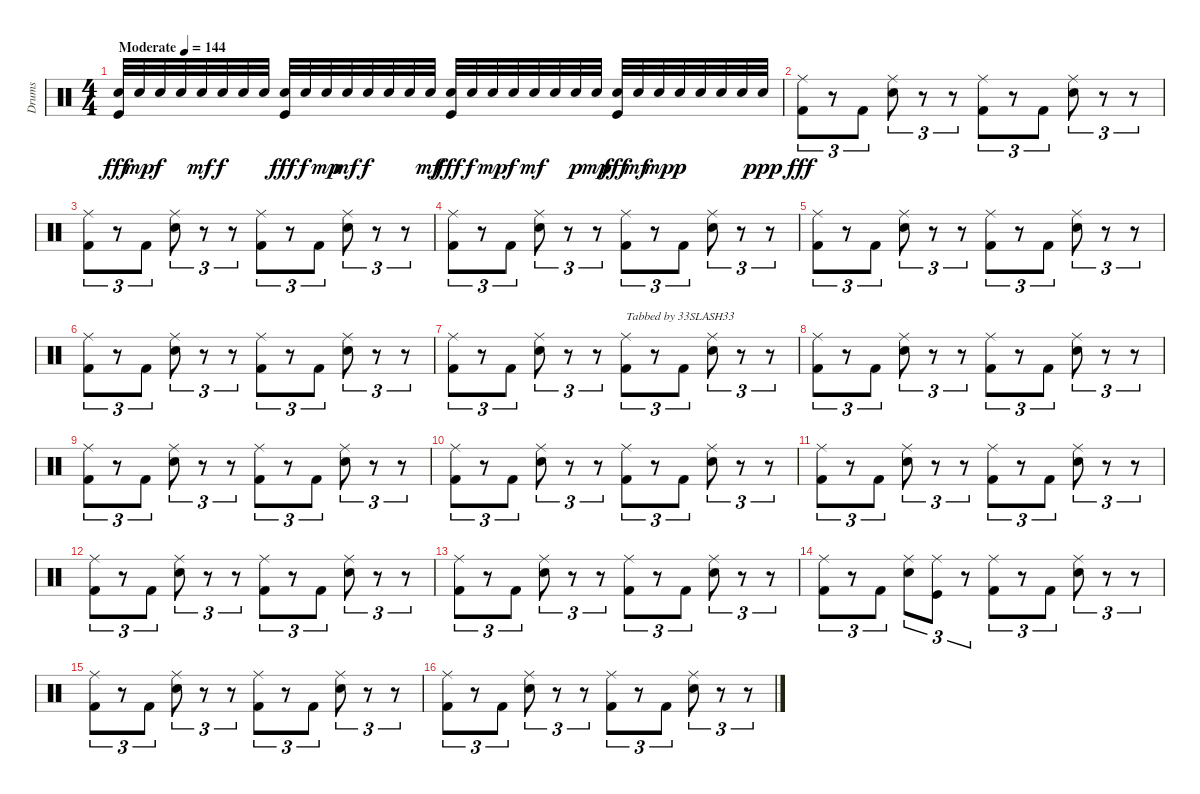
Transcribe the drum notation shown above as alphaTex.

\track ("Drums" "Drums") {instrument percussion}
\staff {score}
\articulation defaults
\ts (4 4)
\tempo (144 "Moderate")
\clef neutral
\ks c
("Snare (hit) 2" "Kick (hit)").32{dy fff} "Snare (hit) 2".32{dy mp} "Snare (hit) 2".32{dy f} "Snare (hit) 2".32 "Snare (hit) 2".32{dy mf} "Snare (hit) 2".32{dy f} "Snare (hit) 2".32 "Snare (hit) 2".32 ("Snare (hit) 2" "Kick (hit)").32{dy fff} "Snare (hit) 2".32{dy f} "Snare (hit) 2".32{dy mp} "Snare (hit) 2".32{dy mf} "Snare (hit) 2".32{dy f} "Snare (hit) 2".32 "Snare (hit) 2".32 "Snare (hit) 2".32{dy mf} ("Snare (hit) 2" "Kick (hit)").32{dy fff} "Snare (hit) 2".32{dy f} "Snare (hit) 2".32{dy mp} "Snare (hit) 2".32{dy f} "Snare (hit) 2".32{dy mf} "Snare (hit) 2".32 "Snare (hit) 2".32{dy p} "Snare (hit) 2".32{dy mp} ("Snare (hit) 2" "Kick (hit)").32{dy fff} "Snare (hit) 2".32{dy mf} "Snare (hit) 2".32{dy mp} "Snare (hit) 2".32{dy p} "Snare (hit) 2".32 "Snare (hit) 2".32 "Snare (hit) 2".32 "Snare (hit) 2".32{dy ppp} |
("Ride (middle)" "Kick (hit) 2").8{tu (3 2) dy fff} r.8{tu (3 2)} "Kick (hit) 2".8{tu (3 2)} ("Ride (middle)" "Snare (hit) 2").8{tu (3 2)} r.8{tu (3 2)} r.8{tu (3 2)} ("Ride (middle)" "Kick (hit) 2").8{tu (3 2)} r.8{tu (3 2)} "Kick (hit) 2".8{tu (3 2)} ("Ride (middle)" "Snare (hit) 2").8{tu (3 2)} r.8{tu (3 2)} r.8{tu (3 2)} |
("Ride (middle)" "Kick (hit) 2").8{tu (3 2)} r.8{tu (3 2)} "Kick (hit) 2".8{tu (3 2)} ("Ride (middle)" "Snare (hit) 2").8{tu (3 2)} r.8{tu (3 2)} r.8{tu (3 2)} ("Ride (middle)" "Kick (hit) 2").8{tu (3 2)} r.8{tu (3 2)} "Kick (hit) 2".8{tu (3 2)} ("Ride (middle)" "Snare (hit) 2").8{tu (3 2)} r.8{tu (3 2)} r.8{tu (3 2)} |
("Ride (middle)" "Kick (hit) 2").8{tu (3 2)} r.8{tu (3 2)} "Kick (hit) 2".8{tu (3 2)} ("Ride (middle)" "Snare (hit) 2").8{tu (3 2)} r.8{tu (3 2)} r.8{tu (3 2)} ("Ride (middle)" "Kick (hit) 2").8{tu (3 2)} r.8{tu (3 2)} "Kick (hit) 2".8{tu (3 2)} ("Ride (middle)" "Snare (hit) 2").8{tu (3 2)} r.8{tu (3 2)} r.8{tu (3 2)} |
("Ride (middle)" "Kick (hit) 2").8{tu (3 2)} r.8{tu (3 2)} "Kick (hit) 2".8{tu (3 2)} ("Ride (middle)" "Snare (hit) 2").8{tu (3 2)} r.8{tu (3 2)} r.8{tu (3 2)} ("Ride (middle)" "Kick (hit) 2").8{tu (3 2)} r.8{tu (3 2)} "Kick (hit) 2".8{tu (3 2)} ("Ride (middle)" "Snare (hit) 2").8{tu (3 2)} r.8{tu (3 2)} r.8{tu (3 2)} |
("Ride (middle)" "Kick (hit) 2").8{tu (3 2)} r.8{tu (3 2)} "Kick (hit) 2".8{tu (3 2)} ("Ride (middle)" "Snare (hit) 2").8{tu (3 2)} r.8{tu (3 2)} r.8{tu (3 2)} ("Ride (middle)" "Kick (hit) 2").8{tu (3 2)} r.8{tu (3 2)} "Kick (hit) 2".8{tu (3 2)} ("Ride (middle)" "Snare (hit) 2").8{tu (3 2)} r.8{tu (3 2)} r.8{tu (3 2)} |
("Ride (middle)" "Kick (hit) 2").8{tu (3 2)} r.8{tu (3 2)} "Kick (hit) 2".8{tu (3 2)} ("Ride (middle)" "Snare (hit) 2").8{tu (3 2)} r.8{tu (3 2)} r.8{tu (3 2)} ("Ride (middle)" "Kick (hit) 2").8{tu (3 2) txt "Tabbed by 33SLASH33"} r.8{tu (3 2)} "Kick (hit) 2".8{tu (3 2)} ("Ride (middle)" "Snare (hit) 2").8{tu (3 2)} r.8{tu (3 2)} r.8{tu (3 2)} |
("Ride (middle)" "Kick (hit) 2").8{tu (3 2)} r.8{tu (3 2)} "Kick (hit) 2".8{tu (3 2)} ("Ride (middle)" "Snare (hit) 2").8{tu (3 2)} r.8{tu (3 2)} r.8{tu (3 2)} ("Ride (middle)" "Kick (hit) 2").8{tu (3 2)} r.8{tu (3 2)} "Kick (hit) 2".8{tu (3 2)} ("Ride (middle)" "Snare (hit) 2").8{tu (3 2)} r.8{tu (3 2)} r.8{tu (3 2)} |
("Ride (middle)" "Kick (hit) 2").8{tu (3 2)} r.8{tu (3 2)} "Kick (hit) 2".8{tu (3 2)} ("Ride (middle)" "Snare (hit) 2").8{tu (3 2)} r.8{tu (3 2)} r.8{tu (3 2)} ("Ride (middle)" "Kick (hit) 2").8{tu (3 2)} r.8{tu (3 2)} "Kick (hit) 2".8{tu (3 2)} ("Ride (middle)" "Snare (hit) 2").8{tu (3 2)} r.8{tu (3 2)} r.8{tu (3 2)} |
("Ride (middle)" "Kick (hit) 2").8{tu (3 2)} r.8{tu (3 2)} "Kick (hit) 2".8{tu (3 2)} ("Ride (middle)" "Snare (hit) 2").8{tu (3 2)} r.8{tu (3 2)} r.8{tu (3 2)} ("Ride (middle)" "Kick (hit) 2").8{tu (3 2)} r.8{tu (3 2)} "Kick (hit) 2".8{tu (3 2)} ("Ride (middle)" "Snare (hit) 2").8{tu (3 2)} r.8{tu (3 2)} r.8{tu (3 2)} |
("Ride (middle)" "Kick (hit) 2").8{tu (3 2)} r.8{tu (3 2)} "Kick (hit) 2".8{tu (3 2)} ("Ride (middle)" "Snare (hit) 2").8{tu (3 2)} r.8{tu (3 2)} r.8{tu (3 2)} ("Ride (middle)" "Kick (hit) 2").8{tu (3 2)} r.8{tu (3 2)} "Kick (hit) 2".8{tu (3 2)} ("Ride (middle)" "Snare (hit) 2").8{tu (3 2)} r.8{tu (3 2)} r.8{tu (3 2)} |
("Ride (middle)" "Kick (hit) 2").8{tu (3 2)} r.8{tu (3 2)} "Kick (hit) 2".8{tu (3 2)} ("Ride (middle)" "Snare (hit) 2").8{tu (3 2)} r.8{tu (3 2)} r.8{tu (3 2)} ("Ride (middle)" "Kick (hit) 2").8{tu (3 2)} r.8{tu (3 2)} "Kick (hit) 2".8{tu (3 2)} ("Ride (middle)" "Snare (hit) 2").8{tu (3 2)} r.8{tu (3 2)} r.8{tu (3 2)} |
("Ride (middle)" "Kick (hit) 2").8{tu (3 2)} r.8{tu (3 2)} "Kick (hit) 2".8{tu (3 2)} ("Ride (middle)" "Snare (hit) 2").8{tu (3 2)} r.8{tu (3 2)} r.8{tu (3 2)} ("Ride (middle)" "Kick (hit) 2").8{tu (3 2)} r.8{tu (3 2)} "Kick (hit) 2".8{tu (3 2)} ("Ride (middle)" "Snare (hit) 2").8{tu (3 2)} r.8{tu (3 2)} r.8{tu (3 2)} |
("Ride (middle)" "Kick (hit) 2").8{tu (3 2)} r.8{tu (3 2)} "Kick (hit) 2".8{tu (3 2)} ("Ride (middle)" "Snare (hit) 2").8{tu (3 2)} ("Ride (middle)" "Kick (hit)").8{tu (3 2)} r.8{tu (3 2)} ("Ride (middle)" "Kick (hit) 2").8{tu (3 2)} r.8{tu (3 2)} "Kick (hit) 2".8{tu (3 2)} ("Ride (middle)" "Snare (hit) 2").8{tu (3 2)} r.8{tu (3 2)} r.8{tu (3 2)} |
("Ride (middle)" "Kick (hit) 2").8{tu (3 2)} r.8{tu (3 2)} "Kick (hit) 2".8{tu (3 2)} ("Ride (middle)" "Snare (hit) 2").8{tu (3 2)} r.8{tu (3 2)} r.8{tu (3 2)} ("Ride (middle)" "Kick (hit) 2").8{tu (3 2)} r.8{tu (3 2)} "Kick (hit) 2".8{tu (3 2)} ("Ride (middle)" "Snare (hit) 2").8{tu (3 2)} r.8{tu (3 2)} r.8{tu (3 2)} |
("Ride (middle)" "Kick (hit) 2").8{tu (3 2)} r.8{tu (3 2)} "Kick (hit) 2".8{tu (3 2)} ("Ride (middle)" "Snare (hit) 2").8{tu (3 2)} r.8{tu (3 2)} r.8{tu (3 2)} ("Ride (middle)" "Kick (hit) 2").8{tu (3 2)} r.8{tu (3 2)} "Kick (hit) 2".8{tu (3 2)} ("Ride (middle)" "Snare (hit) 2").8{tu (3 2)} r.8{tu (3 2)} r.8{tu (3 2)}
